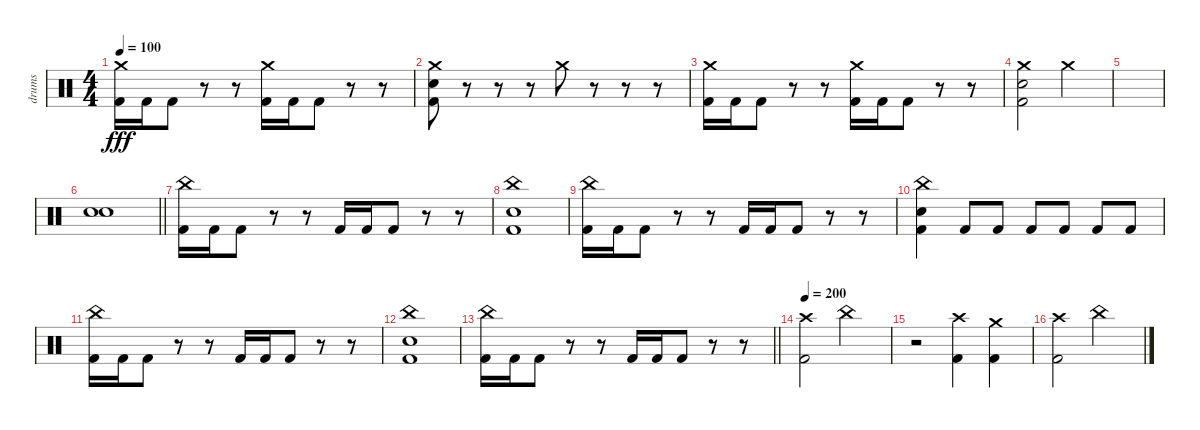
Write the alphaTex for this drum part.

\track ("drums" "drums") {instrument percussion}
\staff {score}
\articulation defaults
\ts (4 4)
\tempo 100
\clef neutral
\ks c
("Crash medium (hit)" "Kick (hit) 2").16{dy fff} "Kick (hit) 2".16 "Kick (hit) 2".8 r.8 r.8 ("Crash medium (hit)" "Kick (hit) 2").16 "Kick (hit) 2".16 "Kick (hit) 2".8 r.8 r.8 |
("Crash medium (hit)" "Electric Snare (hit)" "Kick (hit) 2").8 r.8 r.8 r.8 "Crash medium (hit)".8 r.8 r.8 r.8 |
("Crash medium (hit)" "Kick (hit) 2").16 "Kick (hit) 2".16 "Kick (hit) 2".8 r.8 r.8 ("Crash medium (hit)" "Kick (hit) 2").16 "Kick (hit) 2".16 "Kick (hit) 2".8 r.8 r.8 |
("Crash medium (hit)" "Electric Snare (hit)" "Kick (hit) 2").2 "Crash medium (hit)".2 |
|
\barLineRight lightlight
("Electric Snare (hit)" "Electric Snare (hit)").1 |
("China (hit)" "Kick (hit) 2").16 "Kick (hit) 2".16 "Kick (hit) 2".8 r.8 r.8 "Kick (hit) 2".16 "Kick (hit) 2".16 "Kick (hit) 2".8 r.8 r.8 |
("China (hit)" "Electric Snare (hit)" "Kick (hit) 2").1 |
("China (hit)" "Kick (hit) 2").16 "Kick (hit) 2".16 "Kick (hit) 2".8 r.8 r.8 "Kick (hit) 2".16 "Kick (hit) 2".16 "Kick (hit) 2".8 r.8 r.8 |
("China (hit)" "Electric Snare (hit)" "Kick (hit) 2").4 "Kick (hit) 2".8 "Kick (hit) 2".8 "Kick (hit) 2".8 "Kick (hit) 2".8 "Kick (hit) 2".8 "Kick (hit) 2".8 |
("China (hit)" "Kick (hit) 2").16 "Kick (hit) 2".16 "Kick (hit) 2".8 r.8 r.8 "Kick (hit) 2".16 "Kick (hit) 2".16 "Kick (hit) 2".8 r.8 r.8 |
("China (hit)" "Electric Snare (hit)" "Kick (hit) 2").1 |
\barLineRight lightlight
("China (hit)" "Kick (hit) 2").16 "Kick (hit) 2".16 "Kick (hit) 2".8 r.8 r.8 "Kick (hit) 2".16 "Kick (hit) 2".16 "Kick (hit) 2".8 r.8 r.8 |
\tempo 200
("Crash high (hit)" "Kick (hit) 2").2 "China (hit)".2 |
r.2 ("Crash high (hit)" "Kick (hit) 2").4 ("Crash medium (hit)" "Kick (hit) 2").4 |
("Crash high (hit)" "Kick (hit) 2").2 "China (hit)".2
